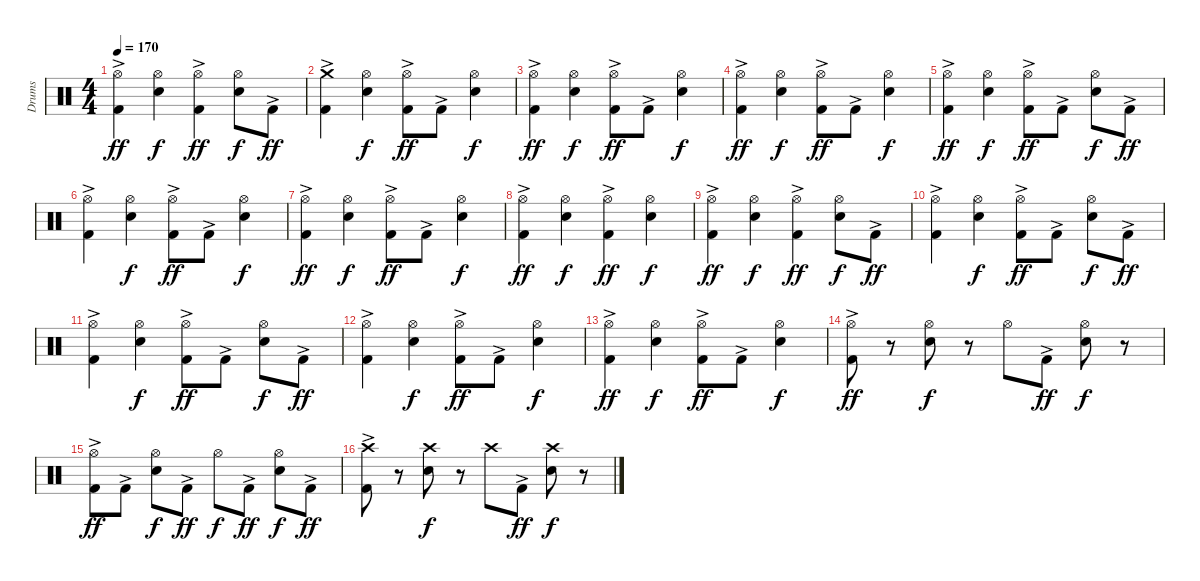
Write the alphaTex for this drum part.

\track ("Drums" "Drums") {instrument percussion}
\staff {score}
\articulation defaults
\ts (4 4)
\tempo 170
\clef neutral
\ks c
("Hi-Hat (open)" "Kick (hit) 2"{ac}).4{dy ff} ("Hi-Hat (open)" "Electric Snare (hit)").4{dy f} ("Hi-Hat (open)" "Kick (hit) 2"{ac}).4{dy ff} ("Hi-Hat (open)" "Electric Snare (hit)").8{dy f} "Kick (hit) 2"{ac}.8{dy ff} |
("Crash medium (hit)" "Kick (hit) 2"{ac}).4 ("Hi-Hat (open)" "Electric Snare (hit)").4{dy f} ("Hi-Hat (open)" "Kick (hit) 2"{ac}).8{dy ff} "Kick (hit) 2"{ac}.8 ("Hi-Hat (open)" "Electric Snare (hit)").4{dy f} |
("Hi-Hat (open)" "Kick (hit) 2"{ac}).4{dy ff} ("Hi-Hat (open)" "Electric Snare (hit)").4{dy f} ("Hi-Hat (open)" "Kick (hit) 2"{ac}).8{dy ff} "Kick (hit) 2"{ac}.8 ("Hi-Hat (open)" "Electric Snare (hit)").4{dy f} |
("Hi-Hat (open)" "Kick (hit) 2"{ac}).4{dy ff} ("Hi-Hat (open)" "Electric Snare (hit)").4{dy f} ("Hi-Hat (open)" "Kick (hit) 2"{ac}).8{dy ff} "Kick (hit) 2"{ac}.8 ("Hi-Hat (open)" "Electric Snare (hit)").4{dy f} |
("Hi-Hat (open)" "Kick (hit) 2"{ac}).4{dy ff} ("Hi-Hat (open)" "Electric Snare (hit)").4{dy f} ("Hi-Hat (open)" "Kick (hit) 2"{ac}).8{dy ff} "Kick (hit) 2"{ac}.8 ("Hi-Hat (open)" "Electric Snare (hit)").8{dy f} "Kick (hit) 2"{ac}.8{dy ff} |
("Hi-Hat (open)" "Kick (hit) 2"{ac}).4 ("Hi-Hat (open)" "Electric Snare (hit)").4{dy f} ("Hi-Hat (open)" "Kick (hit) 2"{ac}).8{dy ff} "Kick (hit) 2"{ac}.8 ("Hi-Hat (open)" "Electric Snare (hit)").4{dy f} |
("Hi-Hat (open)" "Kick (hit) 2"{ac}).4{dy ff} ("Hi-Hat (open)" "Electric Snare (hit)").4{dy f} ("Hi-Hat (open)" "Kick (hit) 2"{ac}).8{dy ff} "Kick (hit) 2"{ac}.8 ("Hi-Hat (open)" "Electric Snare (hit)").4{dy f} |
("Hi-Hat (open)" "Kick (hit) 2"{ac}).4{dy ff} ("Hi-Hat (open)" "Electric Snare (hit)").4{dy f} ("Hi-Hat (open)" "Kick (hit) 2"{ac}).4{dy ff} ("Hi-Hat (open)" "Electric Snare (hit)").4{dy f} |
("Hi-Hat (open)" "Kick (hit) 2"{ac}).4{dy ff} ("Hi-Hat (open)" "Electric Snare (hit)").4{dy f} ("Hi-Hat (open)" "Kick (hit) 2"{ac}).4{dy ff} ("Hi-Hat (open)" "Electric Snare (hit)").8{dy f} "Kick (hit) 2"{ac}.8{dy ff} |
("Hi-Hat (open)" "Kick (hit) 2"{ac}).4 ("Hi-Hat (open)" "Electric Snare (hit)").4{dy f} ("Hi-Hat (open)" "Kick (hit) 2"{ac}).8{dy ff} "Kick (hit) 2"{ac}.8 ("Hi-Hat (open)" "Electric Snare (hit)").8{dy f} "Kick (hit) 2"{ac}.8{dy ff} |
("Hi-Hat (open)" "Kick (hit) 2"{ac}).4 ("Hi-Hat (open)" "Electric Snare (hit)").4{dy f} ("Hi-Hat (open)" "Kick (hit) 2"{ac}).8{dy ff} "Kick (hit) 2"{ac}.8 ("Hi-Hat (open)" "Electric Snare (hit)").8{dy f} "Kick (hit) 2"{ac}.8{dy ff} |
("Hi-Hat (open)" "Kick (hit) 2"{ac}).4 ("Hi-Hat (open)" "Electric Snare (hit)").4{dy f} ("Hi-Hat (open)" "Kick (hit) 2"{ac}).8{dy ff} "Kick (hit) 2"{ac}.8 ("Hi-Hat (open)" "Electric Snare (hit)").4{dy f} |
("Hi-Hat (open)" "Kick (hit) 2"{ac}).4{dy ff} ("Hi-Hat (open)" "Electric Snare (hit)").4{dy f} ("Hi-Hat (open)" "Kick (hit) 2"{ac}).8{dy ff} "Kick (hit) 2"{ac}.8 ("Hi-Hat (open)" "Electric Snare (hit)").4{dy f} |
("Hi-Hat (open)" "Kick (hit) 2"{ac}).8{dy ff} r.8 ("Hi-Hat (open)" "Electric Snare (hit)").8{dy f} r.8 "Hi-Hat (open)".8 "Kick (hit) 2"{ac}.8{dy ff} ("Hi-Hat (open)" "Electric Snare (hit)").8{dy f} r.8 |
("Hi-Hat (open)" "Kick (hit) 2"{ac}).8{dy ff} "Kick (hit) 2"{ac}.8 ("Hi-Hat (open)" "Electric Snare (hit)").8{dy f} "Kick (hit) 2"{ac}.8{dy ff} "Hi-Hat (open)".8{dy f} "Kick (hit) 2"{ac}.8{dy ff} ("Hi-Hat (open)" "Electric Snare (hit)").8{dy f} "Kick (hit) 2"{ac}.8{dy ff} |
("Crash high (hit)" "Kick (hit) 2"{ac}).8 r.8 ("Crash high (hit)" "Electric Snare (hit)").8{dy f} r.8 "Crash high (hit)".8 "Kick (hit) 2"{ac}.8{dy ff} ("Crash high (hit)" "Electric Snare (hit)").8{dy f} r.8
